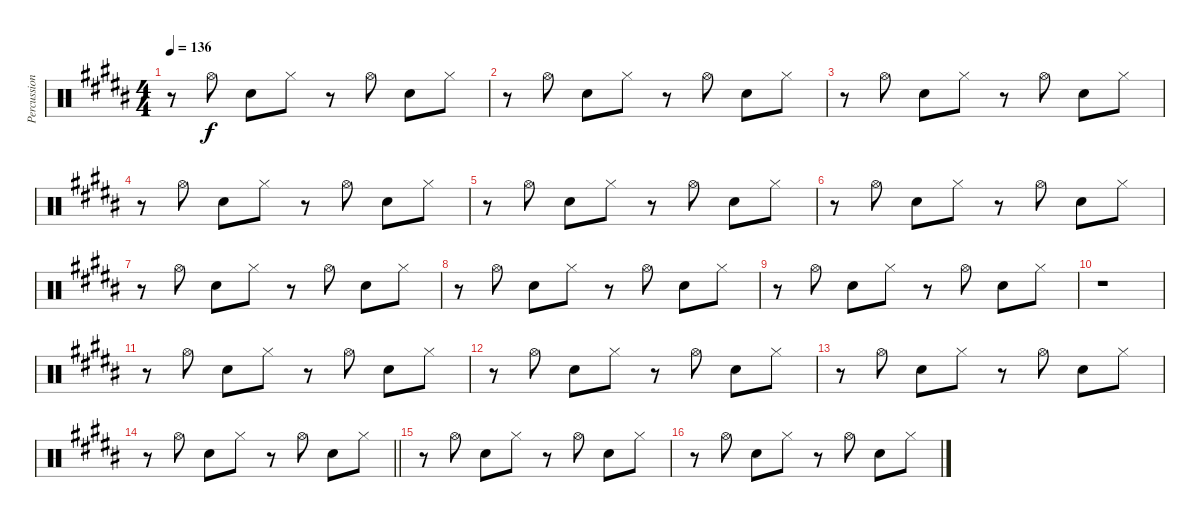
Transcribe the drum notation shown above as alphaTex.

\track ("Percussion" "Percussion") {instrument percussion}
\staff {score}
\articulation defaults
\ts (4 4)
\tempo 136
\clef neutral
\ks g#minor
r.8{dy f} "Hi-Hat (open)".8 "Snare (hit) 2".8 "Hi-Hat (closed)".8 r.8 "Hi-Hat (open)".8 "Snare (hit) 2".8 "Hi-Hat (closed)".8 |
r.8 "Hi-Hat (open)".8 "Snare (hit) 2".8 "Hi-Hat (closed)".8 r.8 "Hi-Hat (open)".8 "Snare (hit) 2".8 "Hi-Hat (closed)".8 |
r.8 "Hi-Hat (open)".8 "Snare (hit) 2".8 "Hi-Hat (closed)".8 r.8 "Hi-Hat (open)".8 "Snare (hit) 2".8 "Hi-Hat (closed)".8 |
r.8 "Hi-Hat (open)".8 "Snare (hit) 2".8 "Hi-Hat (closed)".8 r.8 "Hi-Hat (open)".8 "Snare (hit) 2".8 "Hi-Hat (closed)".8 |
r.8 "Hi-Hat (open)".8 "Snare (hit) 2".8 "Hi-Hat (closed)".8 r.8 "Hi-Hat (open)".8 "Snare (hit) 2".8 "Hi-Hat (closed)".8 |
r.8 "Hi-Hat (open)".8 "Snare (hit) 2".8 "Hi-Hat (closed)".8 r.8 "Hi-Hat (open)".8 "Snare (hit) 2".8 "Hi-Hat (closed)".8 |
r.8 "Hi-Hat (open)".8 "Snare (hit) 2".8 "Hi-Hat (closed)".8 r.8 "Hi-Hat (open)".8 "Snare (hit) 2".8 "Hi-Hat (closed)".8 |
r.8 "Hi-Hat (open)".8 "Snare (hit) 2".8 "Hi-Hat (closed)".8 r.8 "Hi-Hat (open)".8 "Snare (hit) 2".8 "Hi-Hat (closed)".8 |
r.8 "Hi-Hat (open)".8 "Snare (hit) 2".8 "Hi-Hat (closed)".8 r.8 "Hi-Hat (open)".8 "Snare (hit) 2".8 "Hi-Hat (closed)".8 |
r.1 |
r.8 "Hi-Hat (open)".8 "Snare (hit) 2".8 "Hi-Hat (closed)".8 r.8 "Hi-Hat (open)".8 "Snare (hit) 2".8 "Hi-Hat (closed)".8 |
r.8 "Hi-Hat (open)".8 "Snare (hit) 2".8 "Hi-Hat (closed)".8 r.8 "Hi-Hat (open)".8 "Snare (hit) 2".8 "Hi-Hat (closed)".8 |
r.8 "Hi-Hat (open)".8 "Snare (hit) 2".8 "Hi-Hat (closed)".8 r.8 "Hi-Hat (open)".8 "Snare (hit) 2".8 "Hi-Hat (closed)".8 |
\barLineRight lightlight
r.8 "Hi-Hat (open)".8 "Snare (hit) 2".8 "Hi-Hat (closed)".8 r.8 "Hi-Hat (open)".8 "Snare (hit) 2".8 "Hi-Hat (closed)".8 |
r.8 "Hi-Hat (open)".8 "Snare (hit) 2".8 "Hi-Hat (closed)".8 r.8 "Hi-Hat (open)".8 "Snare (hit) 2".8 "Hi-Hat (closed)".8 |
r.8 "Hi-Hat (open)".8 "Snare (hit) 2".8 "Hi-Hat (closed)".8 r.8 "Hi-Hat (open)".8 "Snare (hit) 2".8 "Hi-Hat (closed)".8
